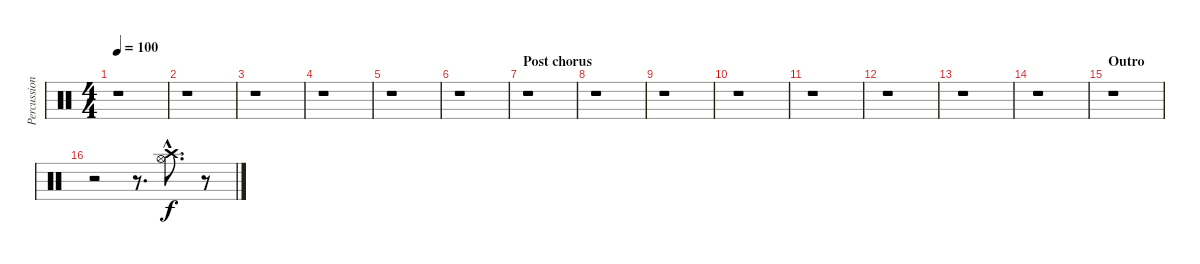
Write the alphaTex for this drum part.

\track ("Percussions additionnelles" "Percussion") {instrument percussion}
\staff {score}
\articulation defaults
\ts (4 4)
\tempo 100
\clef neutral
\ks c
r.1{dy f} |
r.1 |
r.1 |
r.1 |
r.1 |
r.1 |
\section ("" "Post chorus")
r.1 |
r.1 |
r.1 |
r.1 |
r.1 |
r.1 |
r.1 |
r.1 |
\section ("" "Outro")
r.1 |
r.2 r.8{d} ("Hi-Hat (open)"{hac} "Crash high (hit)"{hac}).8{d} r.8
